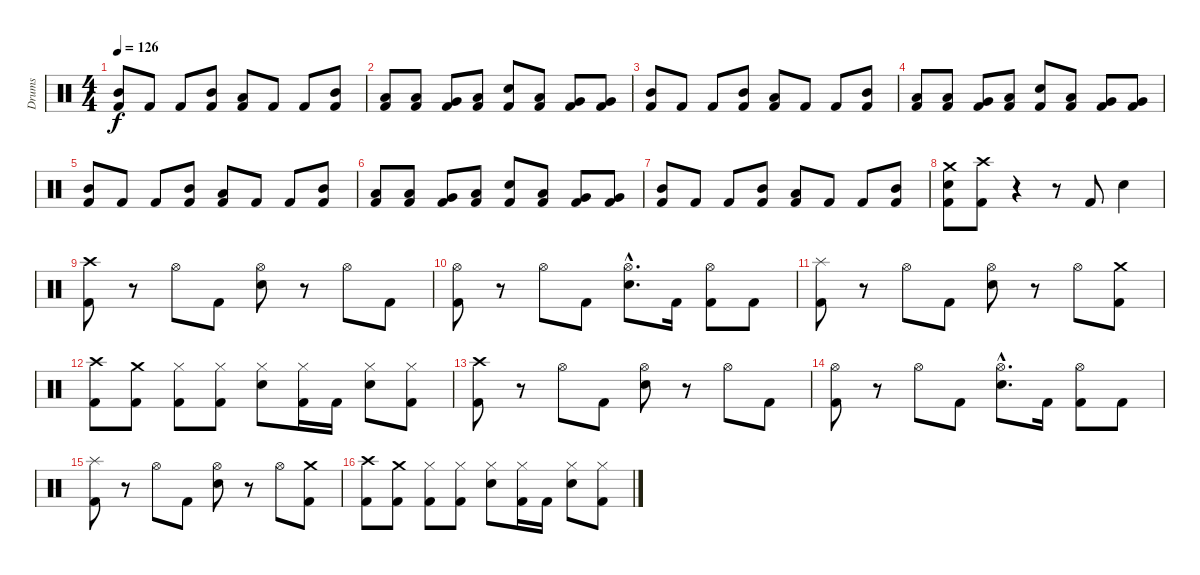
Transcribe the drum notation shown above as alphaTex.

\track ("Drums" "Drums") {instrument percussion}
\staff {score}
\articulation defaults
\ts (4 4)
\section ("" "")
\tempo 126
\clef neutral
\ks c
("Mid Tom (hit)" "Kick (hit) 2").8{dy f} "Kick (hit) 2".8 "Kick (hit) 2".8 ("Mid Tom (hit)" "Kick (hit) 2").8 ("Low Tom (hit)" "Kick (hit) 2").8 "Kick (hit) 2".8 "Kick (hit) 2".8 ("Mid Tom (hit)" "Kick (hit) 2").8 |
("Low Tom (hit)" "Kick (hit) 2").8 ("Low Tom (hit)" "Kick (hit) 2").8 ("Very Low Tom (hit)" "Kick (hit) 2").8 ("Low Floor Tom (hit)" "Kick (hit) 2").8 ("Electric Snare (hit)" "Kick (hit) 2").8 ("Low Floor Tom (hit)" "Kick (hit) 2").8 ("Very Low Tom (hit)" "Kick (hit) 2").8 ("Very Low Tom (hit)" "Kick (hit) 2").8 |
("Mid Tom (hit)" "Kick (hit) 2").8 "Kick (hit) 2".8 "Kick (hit) 2".8 ("Mid Tom (hit)" "Kick (hit) 2").8 ("Low Tom (hit)" "Kick (hit) 2").8 "Kick (hit) 2".8 "Kick (hit) 2".8 ("Mid Tom (hit)" "Kick (hit) 2").8 |
("Low Tom (hit)" "Kick (hit) 2").8 ("Low Tom (hit)" "Kick (hit) 2").8 ("Very Low Tom (hit)" "Kick (hit) 2").8 ("Low Floor Tom (hit)" "Kick (hit) 2").8 ("Electric Snare (hit)" "Kick (hit) 2").8 ("Low Floor Tom (hit)" "Kick (hit) 2").8 ("Very Low Tom (hit)" "Kick (hit) 2").8 ("Very Low Tom (hit)" "Kick (hit) 2").8 |
("Mid Tom (hit)" "Kick (hit) 2").8 "Kick (hit) 2".8 "Kick (hit) 2".8 ("Mid Tom (hit)" "Kick (hit) 2").8 ("Low Tom (hit)" "Kick (hit) 2").8 "Kick (hit) 2".8 "Kick (hit) 2".8 ("Mid Tom (hit)" "Kick (hit) 2").8 |
("Low Tom (hit)" "Kick (hit) 2").8 ("Low Tom (hit)" "Kick (hit) 2").8 ("Very Low Tom (hit)" "Kick (hit) 2").8 ("Low Floor Tom (hit)" "Kick (hit) 2").8 ("Electric Snare (hit)" "Kick (hit) 2").8 ("Low Floor Tom (hit)" "Kick (hit) 2").8 ("Very Low Tom (hit)" "Kick (hit) 2").8 ("Very Low Tom (hit)" "Kick (hit) 2").8 |
("Mid Tom (hit)" "Kick (hit) 2").8 "Kick (hit) 2".8 "Kick (hit) 2".8 ("Mid Tom (hit)" "Kick (hit) 2").8 ("Low Tom (hit)" "Kick (hit) 2").8 "Kick (hit) 2".8 "Kick (hit) 2".8 ("Mid Tom (hit)" "Kick (hit) 2").8 |
("Crash medium (hit)" "Electric Snare (hit)" "Kick (hit) 2").8 ("Crash high (hit)" "Kick (hit) 2").8 r.4 r.8 "Kick (hit) 2".8 "Electric Snare (hit)".4 |
("Crash high (hit)" "Kick (hit) 2").8 r.8 "Hi-Hat (open)".8 "Kick (hit) 2".8 ("Hi-Hat (open)" "Electric Snare (hit)").8 r.8 "Hi-Hat (open)".8 "Kick (hit) 2".8 |
("Hi-Hat (open)" "Kick (hit) 2").8 r.8 "Hi-Hat (open)".8 "Kick (hit) 2".8 ("Hi-Hat (open)"{hac} "Electric Snare (hit)"{hac}).8{d} "Kick (hit) 2".16 ("Hi-Hat (open)" "Kick (hit) 2").8 "Kick (hit) 2".8 |
("Splash (hit)" "Kick (hit) 2").8 r.8 "Hi-Hat (open)".8 "Kick (hit) 2".8 ("Hi-Hat (open)" "Electric Snare (hit)").8 r.8 "Hi-Hat (open)".8 ("Crash medium (hit)" "Kick (hit) 2").8 |
("Crash high (hit)" "Kick (hit) 2").8 ("Crash medium (hit)" "Kick (hit) 2").8 ("Hi-Hat (closed)" "Kick (hit) 2").8 ("Hi-Hat (closed)" "Kick (hit) 2").8 ("Hi-Hat (closed)" "Electric Snare (hit)").8 ("Hi-Hat (closed)" "Kick (hit) 2").16 "Kick (hit) 2".16 ("Hi-Hat (closed)" "Electric Snare (hit)").8 ("Hi-Hat (closed)" "Kick (hit) 2").8 |
("Crash high (hit)" "Kick (hit) 2").8 r.8 "Hi-Hat (open)".8 "Kick (hit) 2".8 ("Hi-Hat (open)" "Electric Snare (hit)").8 r.8 "Hi-Hat (open)".8 "Kick (hit) 2".8 |
("Hi-Hat (open)" "Kick (hit) 2").8 r.8 "Hi-Hat (open)".8 "Kick (hit) 2".8 ("Hi-Hat (open)"{hac} "Electric Snare (hit)"{hac}).8{d} "Kick (hit) 2".16 ("Hi-Hat (open)" "Kick (hit) 2").8 "Kick (hit) 2".8 |
("Splash (hit)" "Kick (hit) 2").8 r.8 "Hi-Hat (open)".8 "Kick (hit) 2".8 ("Hi-Hat (open)" "Electric Snare (hit)").8 r.8 "Hi-Hat (open)".8 ("Crash medium (hit)" "Kick (hit) 2").8 |
("Crash high (hit)" "Kick (hit) 2").8 ("Crash medium (hit)" "Kick (hit) 2").8 ("Hi-Hat (closed)" "Kick (hit) 2").8 ("Hi-Hat (closed)" "Kick (hit) 2").8 ("Hi-Hat (closed)" "Electric Snare (hit)").8 ("Hi-Hat (closed)" "Kick (hit) 2").16 "Kick (hit) 2".16 ("Hi-Hat (closed)" "Electric Snare (hit)").8 ("Hi-Hat (closed)" "Kick (hit) 2").8
